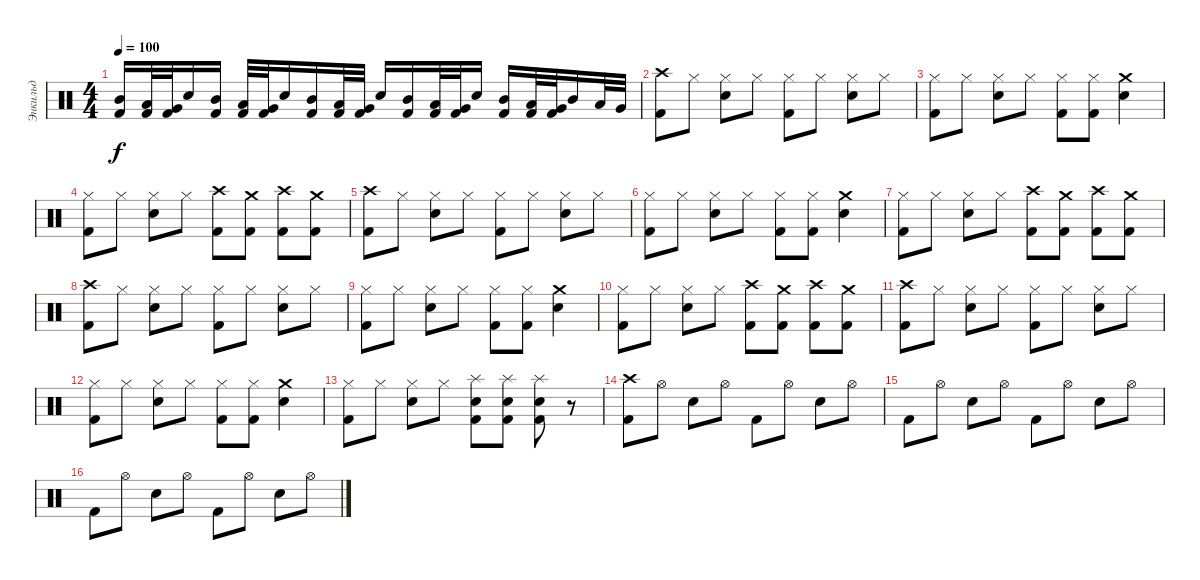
\track ("Энкильд" "Энкильд") {instrument percussion}
\staff {score}
\articulation defaults
\ts (4 4)
\tempo 100
\clef neutral
\ks c
("Mid Tom (hit)" "Kick (hit) 2").16{dy f} ("Low Tom (hit)" "Kick (hit) 2").32 ("Very Low Tom (hit)" "Kick (hit) 2").32 "Snare (hit) 2".16 ("Kick (hit) 2" "Mid Tom (hit)").16 ("Low Tom (hit)" "Kick (hit) 2").32 ("Very Low Tom (hit)" "Kick (hit) 2").32 "Snare (hit) 2".16 ("Mid Tom (hit)" "Kick (hit) 2").16 ("Low Tom (hit)" "Kick (hit) 2").32 ("Very Low Tom (hit)" "Kick (hit) 2").32 "Snare (hit) 2".16 ("Mid Tom (hit)" "Kick (hit) 2").16 ("Low Tom (hit)" "Kick (hit) 2").32 ("Very Low Tom (hit)" "Kick (hit) 2").32 "Snare (hit) 2".16 ("Mid Tom (hit)" "Kick (hit) 2").16 ("Low Tom (hit)" "Kick (hit) 2").32 ("Very Low Tom (hit)" "Kick (hit) 2").32 "Mid Tom (hit)".16 "Low Tom (hit)".32 "Very Low Tom (hit)".32 |
("Kick (hit) 2" "Crash high (hit)").8 "Hi-Hat (closed)".8 ("Snare (hit) 2" "Hi-Hat (closed)").8 "Hi-Hat (closed)".8 ("Kick (hit) 2" "Hi-Hat (closed)").8 "Hi-Hat (closed)".8 ("Snare (hit) 2" "Hi-Hat (closed)").8 "Hi-Hat (closed)".8 |
("Kick (hit) 2" "Hi-Hat (closed)").8 "Hi-Hat (closed)".8 ("Snare (hit) 2" "Hi-Hat (closed)").8 "Hi-Hat (closed)".8 ("Kick (hit) 2" "Hi-Hat (closed)").8 ("Kick (hit) 2" "Hi-Hat (closed)").8 ("Crash medium (hit)" "Snare (hit) 2").4 |
("Hi-Hat (closed)" "Kick (hit) 2").8 "Hi-Hat (closed)".8 ("Hi-Hat (closed)" "Snare (hit) 2").8 "Hi-Hat (closed)".8 ("Kick (hit) 2" "Crash high (hit)").8 ("Kick (hit) 2" "Crash medium (hit)").8 ("Kick (hit) 2" "Crash high (hit)").8 ("Kick (hit) 2" "Crash medium (hit)").8 |
("Kick (hit) 2" "Crash high (hit)").8 "Hi-Hat (closed)".8 ("Snare (hit) 2" "Hi-Hat (closed)").8 "Hi-Hat (closed)".8 ("Kick (hit) 2" "Hi-Hat (closed)").8 "Hi-Hat (closed)".8 ("Snare (hit) 2" "Hi-Hat (closed)").8 "Hi-Hat (closed)".8 |
("Kick (hit) 2" "Hi-Hat (closed)").8 "Hi-Hat (closed)".8 ("Snare (hit) 2" "Hi-Hat (closed)").8 "Hi-Hat (closed)".8 ("Kick (hit) 2" "Hi-Hat (closed)").8 ("Kick (hit) 2" "Hi-Hat (closed)").8 ("Crash medium (hit)" "Snare (hit) 2").4 |
("Hi-Hat (closed)" "Kick (hit) 2").8 "Hi-Hat (closed)".8 ("Hi-Hat (closed)" "Snare (hit) 2").8 "Hi-Hat (closed)".8 ("Kick (hit) 2" "Crash high (hit)").8 ("Kick (hit) 2" "Crash medium (hit)").8 ("Kick (hit) 2" "Crash high (hit)").8 ("Kick (hit) 2" "Crash medium (hit)").8 |
("Kick (hit) 2" "Crash high (hit)").8 "Hi-Hat (closed)".8 ("Snare (hit) 2" "Hi-Hat (closed)").8 "Hi-Hat (closed)".8 ("Kick (hit) 2" "Hi-Hat (closed)").8 "Hi-Hat (closed)".8 ("Snare (hit) 2" "Hi-Hat (closed)").8 "Hi-Hat (closed)".8 |
("Kick (hit) 2" "Hi-Hat (closed)").8 "Hi-Hat (closed)".8 ("Snare (hit) 2" "Hi-Hat (closed)").8 "Hi-Hat (closed)".8 ("Kick (hit) 2" "Hi-Hat (closed)").8 ("Kick (hit) 2" "Hi-Hat (closed)").8 ("Crash medium (hit)" "Snare (hit) 2").4 |
("Hi-Hat (closed)" "Kick (hit) 2").8 "Hi-Hat (closed)".8 ("Hi-Hat (closed)" "Snare (hit) 2").8 "Hi-Hat (closed)".8 ("Kick (hit) 2" "Crash high (hit)").8 ("Kick (hit) 2" "Crash medium (hit)").8 ("Kick (hit) 2" "Crash high (hit)").8 ("Kick (hit) 2" "Crash medium (hit)").8 |
("Kick (hit) 2" "Crash high (hit)").8 "Hi-Hat (closed)".8 ("Snare (hit) 2" "Hi-Hat (closed)").8 "Hi-Hat (closed)".8 ("Kick (hit) 2" "Hi-Hat (closed)").8 "Hi-Hat (closed)".8 ("Snare (hit) 2" "Hi-Hat (closed)").8 "Hi-Hat (closed)".8 |
("Kick (hit) 2" "Hi-Hat (closed)").8 "Hi-Hat (closed)".8 ("Snare (hit) 2" "Hi-Hat (closed)").8 "Hi-Hat (closed)".8 ("Kick (hit) 2" "Hi-Hat (closed)").8 ("Kick (hit) 2" "Hi-Hat (closed)").8 ("Crash medium (hit)" "Snare (hit) 2").4 |
("Hi-Hat (closed)" "Kick (hit) 2").8 "Hi-Hat (closed)".8 ("Hi-Hat (closed)" "Snare (hit) 2").8 "Hi-Hat (closed)".8 ("Splash (hit)" "Kick (hit) 2" "Snare (hit) 2").8 ("Splash (hit)" "Kick (hit) 2" "Snare (hit) 2").8 ("Splash (hit)" "Kick (hit) 2" "Snare (hit) 2").8 r.8 |
("Crash high (hit)" "Kick (hit) 2").8 "Hi-Hat (open)".8 "Snare (hit) 2".8 "Hi-Hat (open)".8 "Kick (hit) 2".8 "Hi-Hat (open)".8 "Snare (hit) 2".8 "Hi-Hat (open)".8 |
"Kick (hit) 2".8 "Hi-Hat (open)".8 "Snare (hit) 2".8 "Hi-Hat (open)".8 "Kick (hit) 2".8 "Hi-Hat (open)".8 "Snare (hit) 2".8 "Hi-Hat (open)".8 |
"Kick (hit) 2".8 "Hi-Hat (open)".8 "Snare (hit) 2".8 "Hi-Hat (open)".8 "Kick (hit) 2".8 "Hi-Hat (open)".8 "Snare (hit) 2".8 "Hi-Hat (open)".8
